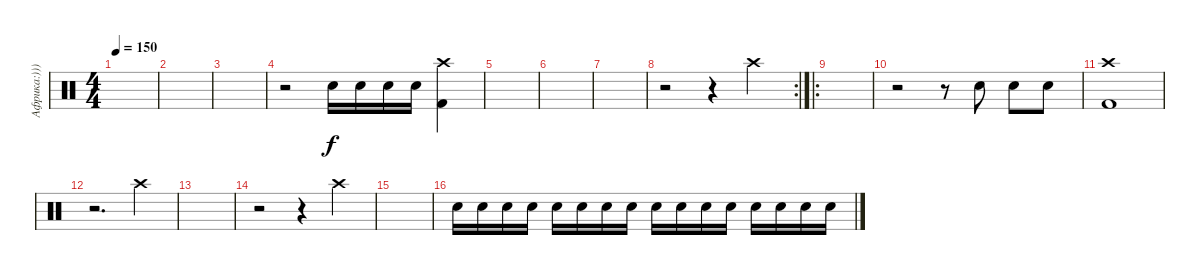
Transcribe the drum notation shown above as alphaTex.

\track ("Африка:)))))" "Африка:)))") {instrument percussion}
\staff {score}
\articulation defaults
\ts (4 4)
\tempo 150
\clef neutral
\ks c
|
|
|
r.2 "Snare (hit) 2".16 "Snare (hit) 2".16 "Snare (hit) 2".16 "Snare (hit) 2".16 ("Kick (hit) 2" "Crash high (hit)").4 |
|
|
|
\rc 2
r.2 r.4 "Crash high (hit)".4 |
\ro
|
r.2 r.8 "Snare (hit) 2".8 "Snare (hit) 2".8 "Snare (hit) 2".8 |
("Kick (hit) 2" "Crash high (hit)").1 |
r.2{d} "Crash high (hit)".4 |
|
r.2 r.4 "Crash high (hit)".4 |
|
"Snare (hit) 2".16 "Snare (hit) 2".16 "Snare (hit) 2".16 "Snare (hit) 2".16 "Snare (hit) 2".16 "Snare (hit) 2".16 "Snare (hit) 2".16 "Snare (hit) 2".16 "Snare (hit) 2".16 "Snare (hit) 2".16 "Snare (hit) 2".16 "Snare (hit) 2".16 "Snare (hit) 2".16 "Snare (hit) 2".16 "Snare (hit) 2".16 "Snare (hit) 2".16
